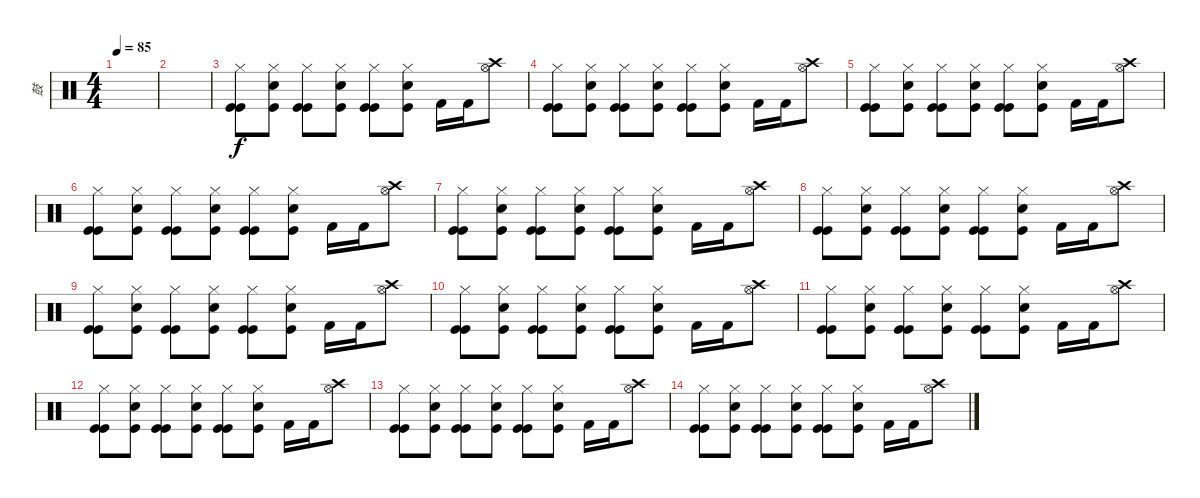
\track ("鼓" "鼓") {instrument percussion}
\staff {score}
\articulation defaults
\ts (4 4)
\tempo 85
\clef neutral
\ks c
|
|
("Hi-Hat (closed)" "Kick (hit)" "Kick (hit)").8 ("Hi-Hat (closed)" "Kick (hit)" "Snare (hit) 2").8 ("Hi-Hat (closed)" "Kick (hit)" "Kick (hit)").8 ("Hi-Hat (closed)" "Kick (hit)" "Snare (hit) 2").8 ("Hi-Hat (closed)" "Kick (hit)" "Kick (hit)").8 ("Hi-Hat (closed)" "Kick (hit)" "Snare (hit) 2").8 "Kick (hit) 2".16 "Kick (hit) 2".16 ("Crash high (hit)" "Hi-Hat (open)").8 |
("Hi-Hat (closed)" "Kick (hit)" "Kick (hit)").8 ("Hi-Hat (closed)" "Kick (hit)" "Snare (hit) 2").8 ("Hi-Hat (closed)" "Kick (hit)" "Kick (hit)").8 ("Hi-Hat (closed)" "Kick (hit)" "Snare (hit) 2").8 ("Hi-Hat (closed)" "Kick (hit)" "Kick (hit)").8 ("Hi-Hat (closed)" "Kick (hit)" "Snare (hit) 2").8 "Kick (hit) 2".16 "Kick (hit) 2".16 ("Crash high (hit)" "Hi-Hat (open)").8 |
("Hi-Hat (closed)" "Kick (hit)" "Kick (hit)").8 ("Hi-Hat (closed)" "Kick (hit)" "Snare (hit) 2").8 ("Hi-Hat (closed)" "Kick (hit)" "Kick (hit)").8 ("Hi-Hat (closed)" "Kick (hit)" "Snare (hit) 2").8 ("Hi-Hat (closed)" "Kick (hit)" "Kick (hit)").8 ("Hi-Hat (closed)" "Kick (hit)" "Snare (hit) 2").8 "Kick (hit) 2".16 "Kick (hit) 2".16 ("Crash high (hit)" "Hi-Hat (open)").8 |
("Hi-Hat (closed)" "Kick (hit)" "Kick (hit)").8 ("Hi-Hat (closed)" "Kick (hit)" "Snare (hit) 2").8 ("Hi-Hat (closed)" "Kick (hit)" "Kick (hit)").8 ("Hi-Hat (closed)" "Kick (hit)" "Snare (hit) 2").8 ("Hi-Hat (closed)" "Kick (hit)" "Kick (hit)").8 ("Hi-Hat (closed)" "Kick (hit)" "Snare (hit) 2").8 "Kick (hit) 2".16 "Kick (hit) 2".16 ("Crash high (hit)" "Hi-Hat (open)").8 |
("Hi-Hat (closed)" "Kick (hit)" "Kick (hit)").8 ("Hi-Hat (closed)" "Kick (hit)" "Snare (hit) 2").8 ("Hi-Hat (closed)" "Kick (hit)" "Kick (hit)").8 ("Hi-Hat (closed)" "Kick (hit)" "Snare (hit) 2").8 ("Hi-Hat (closed)" "Kick (hit)" "Kick (hit)").8 ("Hi-Hat (closed)" "Kick (hit)" "Snare (hit) 2").8 "Kick (hit) 2".16 "Kick (hit) 2".16 ("Crash high (hit)" "Hi-Hat (open)").8 |
("Hi-Hat (closed)" "Kick (hit)" "Kick (hit)").8 ("Hi-Hat (closed)" "Kick (hit)" "Snare (hit) 2").8 ("Hi-Hat (closed)" "Kick (hit)" "Kick (hit)").8 ("Hi-Hat (closed)" "Kick (hit)" "Snare (hit) 2").8 ("Hi-Hat (closed)" "Kick (hit)" "Kick (hit)").8 ("Hi-Hat (closed)" "Kick (hit)" "Snare (hit) 2").8 "Kick (hit) 2".16 "Kick (hit) 2".16 ("Crash high (hit)" "Hi-Hat (open)").8 |
("Hi-Hat (closed)" "Kick (hit)" "Kick (hit)").8 ("Hi-Hat (closed)" "Kick (hit)" "Snare (hit) 2").8 ("Hi-Hat (closed)" "Kick (hit)" "Kick (hit)").8 ("Hi-Hat (closed)" "Kick (hit)" "Snare (hit) 2").8 ("Hi-Hat (closed)" "Kick (hit)" "Kick (hit)").8 ("Hi-Hat (closed)" "Kick (hit)" "Snare (hit) 2").8 "Kick (hit) 2".16 "Kick (hit) 2".16 ("Crash high (hit)" "Hi-Hat (open)").8 |
("Hi-Hat (closed)" "Kick (hit)" "Kick (hit)").8 ("Hi-Hat (closed)" "Kick (hit)" "Snare (hit) 2").8 ("Hi-Hat (closed)" "Kick (hit)" "Kick (hit)").8 ("Hi-Hat (closed)" "Kick (hit)" "Snare (hit) 2").8 ("Hi-Hat (closed)" "Kick (hit)" "Kick (hit)").8 ("Hi-Hat (closed)" "Kick (hit)" "Snare (hit) 2").8 "Kick (hit) 2".16 "Kick (hit) 2".16 ("Crash high (hit)" "Hi-Hat (open)").8 |
("Hi-Hat (closed)" "Kick (hit)" "Kick (hit)").8 ("Hi-Hat (closed)" "Kick (hit)" "Snare (hit) 2").8 ("Hi-Hat (closed)" "Kick (hit)" "Kick (hit)").8 ("Hi-Hat (closed)" "Kick (hit)" "Snare (hit) 2").8 ("Hi-Hat (closed)" "Kick (hit)" "Kick (hit)").8 ("Hi-Hat (closed)" "Kick (hit)" "Snare (hit) 2").8 "Kick (hit) 2".16 "Kick (hit) 2".16 ("Crash high (hit)" "Hi-Hat (open)").8 |
("Hi-Hat (closed)" "Kick (hit)" "Kick (hit)").8 ("Hi-Hat (closed)" "Kick (hit)" "Snare (hit) 2").8 ("Hi-Hat (closed)" "Kick (hit)" "Kick (hit)").8 ("Hi-Hat (closed)" "Kick (hit)" "Snare (hit) 2").8 ("Hi-Hat (closed)" "Kick (hit)" "Kick (hit)").8 ("Hi-Hat (closed)" "Kick (hit)" "Snare (hit) 2").8 "Kick (hit) 2".16 "Kick (hit) 2".16 ("Crash high (hit)" "Hi-Hat (open)").8 |
("Hi-Hat (closed)" "Kick (hit)" "Kick (hit)").8 ("Hi-Hat (closed)" "Kick (hit)" "Snare (hit) 2").8 ("Hi-Hat (closed)" "Kick (hit)" "Kick (hit)").8 ("Hi-Hat (closed)" "Kick (hit)" "Snare (hit) 2").8 ("Hi-Hat (closed)" "Kick (hit)" "Kick (hit)").8 ("Hi-Hat (closed)" "Kick (hit)" "Snare (hit) 2").8 "Kick (hit) 2".16 "Kick (hit) 2".16 ("Crash high (hit)" "Hi-Hat (open)").8 |
("Hi-Hat (closed)" "Kick (hit)" "Kick (hit)").8 ("Hi-Hat (closed)" "Kick (hit)" "Snare (hit) 2").8 ("Hi-Hat (closed)" "Kick (hit)" "Kick (hit)").8 ("Hi-Hat (closed)" "Kick (hit)" "Snare (hit) 2").8 ("Hi-Hat (closed)" "Kick (hit)" "Kick (hit)").8 ("Hi-Hat (closed)" "Kick (hit)" "Snare (hit) 2").8 "Kick (hit) 2".16 "Kick (hit) 2".16 ("Crash high (hit)" "Hi-Hat (open)").8
